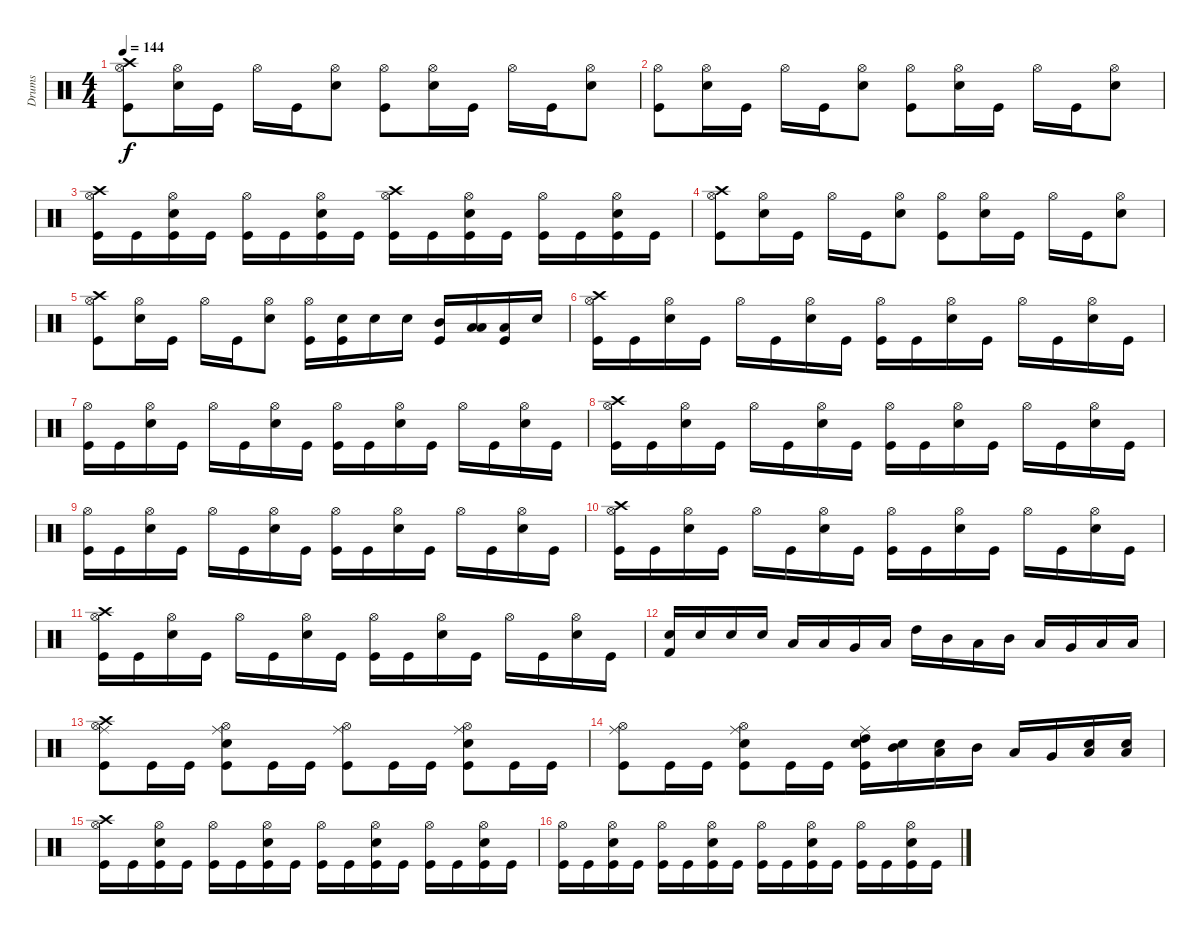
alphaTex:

\track ("Drums" "Drums") {instrument percussion}
\staff {score}
\articulation defaults
\ts (4 4)
\tempo 144
\clef neutral
\ks c
("Hi-Hat (open)" "Crash high (hit)" "Kick (hit)").8{dy f} ("Hi-Hat (open)" "Electric Snare (hit)").16 "Kick (hit)".16 "Hi-Hat (open)".16 "Kick (hit)".16 ("Hi-Hat (open)" "Electric Snare (hit)").8 ("Hi-Hat (open)" "Kick (hit)").8 ("Hi-Hat (open)" "Electric Snare (hit)").16 "Kick (hit)".16 "Hi-Hat (open)".16 "Kick (hit)".16 ("Hi-Hat (open)" "Electric Snare (hit)").8 |
("Hi-Hat (open)" "Kick (hit)").8 ("Hi-Hat (open)" "Electric Snare (hit)").16 "Kick (hit)".16 "Hi-Hat (open)".16 "Kick (hit)".16 ("Hi-Hat (open)" "Electric Snare (hit)").8 ("Hi-Hat (open)" "Kick (hit)").8 ("Hi-Hat (open)" "Electric Snare (hit)").16 "Kick (hit)".16 "Hi-Hat (open)".16 "Kick (hit)".16 ("Hi-Hat (open)" "Electric Snare (hit)").8 |
("Hi-Hat (open)" "Crash high (hit)" "Kick (hit)").16 "Kick (hit)".16 ("Kick (hit)" "Hi-Hat (open)" "Electric Snare (hit)").16 "Kick (hit)".16 ("Kick (hit)" "Hi-Hat (open)").16 "Kick (hit)".16 ("Kick (hit)" "Hi-Hat (open)" "Electric Snare (hit)").16 "Kick (hit)".16 ("Hi-Hat (open)" "Crash high (hit)" "Kick (hit)").16 "Kick (hit)".16 ("Kick (hit)" "Hi-Hat (open)" "Electric Snare (hit)").16 "Kick (hit)".16 ("Kick (hit)" "Hi-Hat (open)").16 "Kick (hit)".16 ("Kick (hit)" "Hi-Hat (open)" "Electric Snare (hit)").16 "Kick (hit)".16 |
("Hi-Hat (open)" "Crash high (hit)" "Kick (hit)").8 ("Hi-Hat (open)" "Electric Snare (hit)").16 "Kick (hit)".16 "Hi-Hat (open)".16 "Kick (hit)".16 ("Hi-Hat (open)" "Electric Snare (hit)").8 ("Hi-Hat (open)" "Kick (hit)").8 ("Hi-Hat (open)" "Electric Snare (hit)").16 "Kick (hit)".16 "Hi-Hat (open)".16 "Kick (hit)".16 ("Hi-Hat (open)" "Electric Snare (hit)").8 |
("Hi-Hat (open)" "Crash high (hit)" "Kick (hit)").8 ("Hi-Hat (open)" "Electric Snare (hit)").16 "Kick (hit)".16 "Hi-Hat (open)".16 "Kick (hit)".16 ("Hi-Hat (open)" "Electric Snare (hit)").8 ("Hi-Hat (open)" "Kick (hit)").16 ("Electric Snare (hit)" "Kick (hit)").16 "Electric Snare (hit)".16 "Electric Snare (hit)".16 ("Mid Tom (hit)" "Kick (hit)").16 ("Low Floor Tom (hit)" "Low Tom (hit)").16 ("Low Floor Tom (hit)" "Kick (hit)").16 "Electric Snare (hit)".16 |
("Hi-Hat (open)" "Crash high (hit)" "Kick (hit)").16 "Kick (hit)".16 ("Hi-Hat (open)" "Electric Snare (hit)").16 "Kick (hit)".16 "Hi-Hat (open)".16 "Kick (hit)".16 ("Hi-Hat (open)" "Electric Snare (hit)").16 "Kick (hit)".16 ("Hi-Hat (open)" "Kick (hit)").16 "Kick (hit)".16 ("Hi-Hat (open)" "Electric Snare (hit)").16 "Kick (hit)".16 "Hi-Hat (open)".16 "Kick (hit)".16 ("Hi-Hat (open)" "Electric Snare (hit)").16 "Kick (hit)".16 |
("Hi-Hat (open)" "Kick (hit)").16 "Kick (hit)".16 ("Hi-Hat (open)" "Electric Snare (hit)").16 "Kick (hit)".16 "Hi-Hat (open)".16 "Kick (hit)".16 ("Hi-Hat (open)" "Electric Snare (hit)").16 "Kick (hit)".16 ("Hi-Hat (open)" "Kick (hit)").16 "Kick (hit)".16 ("Hi-Hat (open)" "Electric Snare (hit)").16 "Kick (hit)".16 "Hi-Hat (open)".16 "Kick (hit)".16 ("Hi-Hat (open)" "Electric Snare (hit)").16 "Kick (hit)".16 |
("Hi-Hat (open)" "Crash high (hit)" "Kick (hit)").16 "Kick (hit)".16 ("Hi-Hat (open)" "Electric Snare (hit)").16 "Kick (hit)".16 "Hi-Hat (open)".16 "Kick (hit)".16 ("Hi-Hat (open)" "Electric Snare (hit)").16 "Kick (hit)".16 ("Hi-Hat (open)" "Kick (hit)").16 "Kick (hit)".16 ("Hi-Hat (open)" "Electric Snare (hit)").16 "Kick (hit)".16 "Hi-Hat (open)".16 "Kick (hit)".16 ("Hi-Hat (open)" "Electric Snare (hit)").16 "Kick (hit)".16 |
("Hi-Hat (open)" "Kick (hit)").16 "Kick (hit)".16 ("Hi-Hat (open)" "Electric Snare (hit)").16 "Kick (hit)".16 "Hi-Hat (open)".16 "Kick (hit)".16 ("Hi-Hat (open)" "Electric Snare (hit)").16 "Kick (hit)".16 ("Hi-Hat (open)" "Kick (hit)").16 "Kick (hit)".16 ("Hi-Hat (open)" "Electric Snare (hit)").16 "Kick (hit)".16 "Hi-Hat (open)".16 "Kick (hit)".16 ("Hi-Hat (open)" "Electric Snare (hit)").16 "Kick (hit)".16 |
("Hi-Hat (open)" "Crash high (hit)" "Kick (hit)").16 "Kick (hit)".16 ("Hi-Hat (open)" "Electric Snare (hit)").16 "Kick (hit)".16 "Hi-Hat (open)".16 "Kick (hit)".16 ("Hi-Hat (open)" "Electric Snare (hit)").16 "Kick (hit)".16 ("Hi-Hat (open)" "Kick (hit)").16 "Kick (hit)".16 ("Hi-Hat (open)" "Electric Snare (hit)").16 "Kick (hit)".16 "Hi-Hat (open)".16 "Kick (hit)".16 ("Hi-Hat (open)" "Electric Snare (hit)").16 "Kick (hit)".16 |
("Hi-Hat (open)" "Crash high (hit)" "Kick (hit)").16 "Kick (hit)".16 ("Hi-Hat (open)" "Electric Snare (hit)").16 "Kick (hit)".16 "Hi-Hat (open)".16 "Kick (hit)".16 ("Hi-Hat (open)" "Electric Snare (hit)").16 "Kick (hit)".16 ("Hi-Hat (open)" "Kick (hit)").16 "Kick (hit)".16 ("Hi-Hat (open)" "Electric Snare (hit)").16 "Kick (hit)".16 "Hi-Hat (open)".16 "Kick (hit)".16 ("Hi-Hat (open)" "Electric Snare (hit)").16 "Kick (hit)".16 |
("Electric Snare (hit)" "Kick (hit) 2").16 "Electric Snare (hit)".16 "Electric Snare (hit)".16 "Electric Snare (hit)".16 "Low Tom (hit)".16 "Low Tom (hit)".16 "Very Low Tom (hit)".16 "Low Tom (hit)".16 "High Tom (hit)".16 "Mid Tom (hit)".16 "Low Tom (hit)".16 "Mid Tom (hit)".16 "Low Tom (hit)".16 "Very Low Tom (hit)".16 "Low Tom (hit)".16 "Low Floor Tom (hit)".16 |
("Ride (middle)" "Crash high (hit)" "Hi-Hat (open)" "Kick (hit)").8 "Kick (hit)".16 "Kick (hit)".16 ("Ride (middle)" "Hi-Hat (open)" "Electric Snare (hit)" "Kick (hit)").8 "Kick (hit)".16 "Kick (hit)".16 ("Ride (middle)" "Hi-Hat (open)" "Kick (hit)").8 "Kick (hit)".16 "Kick (hit)".16 ("Ride (middle)" "Hi-Hat (open)" "Electric Snare (hit)" "Kick (hit)").8 "Kick (hit)".16 "Kick (hit)".16 |
("Ride (middle)" "Hi-Hat (open)" "Kick (hit)").8 "Kick (hit)".16 "Kick (hit)".16 ("Ride (middle)" "Hi-Hat (open)" "Electric Snare (hit)" "Kick (hit)").8 "Kick (hit)".16 "Kick (hit)".16 ("Electric Snare (hit)" "Ride (middle)" "High Tom (hit)" "Kick (hit)").16 ("Electric Snare (hit)" "Mid Tom (hit)").16 ("Electric Snare (hit)" "Low Tom (hit)").16 "Mid Tom (hit)".16 "Low Tom (hit)".16 "Very Low Tom (hit)".16 ("Electric Snare (hit)" "Low Tom (hit)").16 ("Snare (hit) 2" "Low Floor Tom (hit)").16 |
("Hi-Hat (open)" "Crash high (hit)" "Kick (hit)").16 "Kick (hit)".16 ("Kick (hit)" "Hi-Hat (open)" "Electric Snare (hit)").16 "Kick (hit)".16 ("Kick (hit)" "Hi-Hat (open)").16 "Kick (hit)".16 ("Kick (hit)" "Hi-Hat (open)" "Electric Snare (hit)").16 "Kick (hit)".16 ("Hi-Hat (open)" "Kick (hit)").16 "Kick (hit)".16 ("Kick (hit)" "Hi-Hat (open)" "Electric Snare (hit)").16 "Kick (hit)".16 ("Kick (hit)" "Hi-Hat (open)").16 "Kick (hit)".16 ("Kick (hit)" "Hi-Hat (open)" "Electric Snare (hit)").16 "Kick (hit)".16 |
("Hi-Hat (open)" "Kick (hit)").16 "Kick (hit)".16 ("Kick (hit)" "Hi-Hat (open)" "Electric Snare (hit)").16 "Kick (hit)".16 ("Kick (hit)" "Hi-Hat (open)").16 "Kick (hit)".16 ("Kick (hit)" "Hi-Hat (open)" "Electric Snare (hit)").16 "Kick (hit)".16 ("Hi-Hat (open)" "Kick (hit)").16 "Kick (hit)".16 ("Kick (hit)" "Hi-Hat (open)" "Electric Snare (hit)").16 "Kick (hit)".16 ("Kick (hit)" "Hi-Hat (open)").16 "Kick (hit)".16 ("Kick (hit)" "Hi-Hat (open)" "Electric Snare (hit)").16 "Kick (hit)".16
